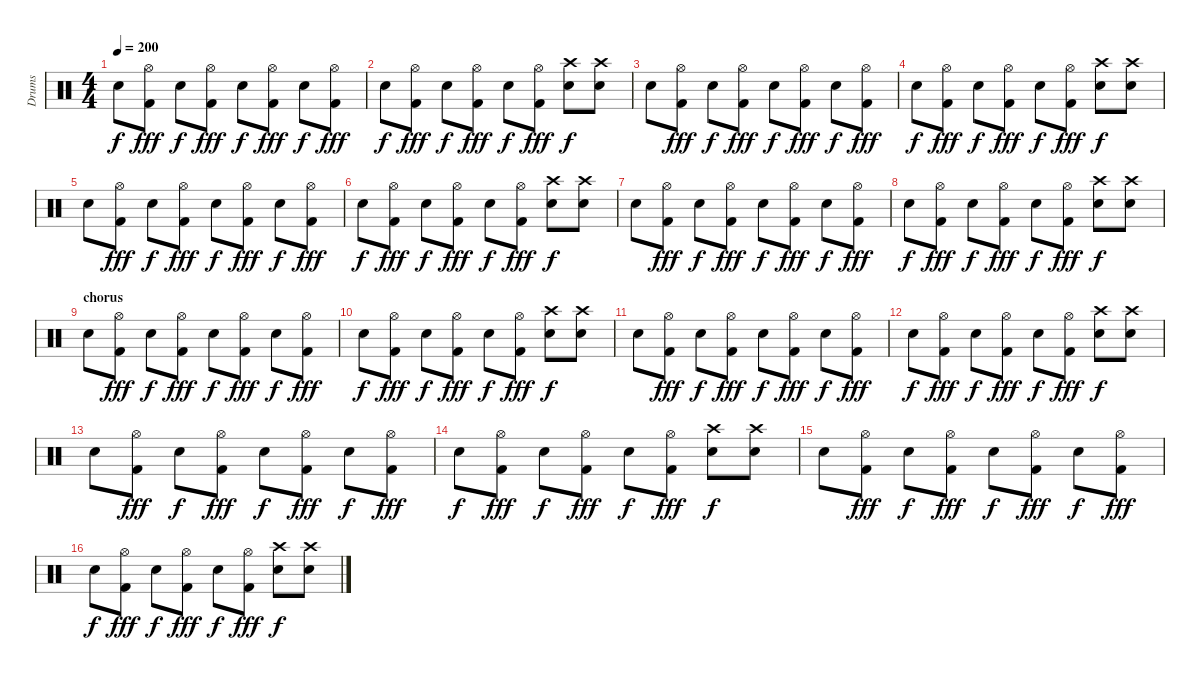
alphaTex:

\track ("Drums" "Drums") {instrument percussion}
\staff {score}
\articulation defaults
\ts (4 4)
\tempo 200
\clef neutral
\ks c "Electric Snare (hit)".8{dy f}
("Hi-Hat (open)" "Kick (hit) 2").8{dy fff} "Electric Snare (hit)".8{dy f} ("Hi-Hat (open)" "Kick (hit) 2").8{dy fff} "Electric Snare (hit)".8{dy f} ("Hi-Hat (open)" "Kick (hit) 2").8{dy fff} "Electric Snare (hit)".8{dy f} ("Hi-Hat (open)" "Kick (hit) 2").8{dy fff} |
"Electric Snare (hit)".8{dy f} ("Hi-Hat (open)" "Kick (hit) 2").8{dy fff} "Electric Snare (hit)".8{dy f} ("Hi-Hat (open)" "Kick (hit) 2").8{dy fff} "Electric Snare (hit)".8{dy f} ("Hi-Hat (open)" "Kick (hit) 2").8{dy fff} ("Crash high (hit)" "Electric Snare (hit)").8{dy f} ("Crash high (hit)" "Electric Snare (hit)").8 |
"Electric Snare (hit)".8 ("Hi-Hat (open)" "Kick (hit) 2").8{dy fff} "Electric Snare (hit)".8{dy f} ("Hi-Hat (open)" "Kick (hit) 2").8{dy fff} "Electric Snare (hit)".8{dy f} ("Hi-Hat (open)" "Kick (hit) 2").8{dy fff} "Electric Snare (hit)".8{dy f} ("Hi-Hat (open)" "Kick (hit) 2").8{dy fff} |
"Electric Snare (hit)".8{dy f} ("Hi-Hat (open)" "Kick (hit) 2").8{dy fff} "Electric Snare (hit)".8{dy f} ("Hi-Hat (open)" "Kick (hit) 2").8{dy fff} "Electric Snare (hit)".8{dy f} ("Hi-Hat (open)" "Kick (hit) 2").8{dy fff} ("Crash high (hit)" "Electric Snare (hit)").8{dy f} ("Crash high (hit)" "Electric Snare (hit)").8 |
"Electric Snare (hit)".8 ("Hi-Hat (open)" "Kick (hit) 2").8{dy fff} "Electric Snare (hit)".8{dy f} ("Hi-Hat (open)" "Kick (hit) 2").8{dy fff} "Electric Snare (hit)".8{dy f} ("Hi-Hat (open)" "Kick (hit) 2").8{dy fff} "Electric Snare (hit)".8{dy f} ("Hi-Hat (open)" "Kick (hit) 2").8{dy fff} |
"Electric Snare (hit)".8{dy f} ("Hi-Hat (open)" "Kick (hit) 2").8{dy fff} "Electric Snare (hit)".8{dy f} ("Hi-Hat (open)" "Kick (hit) 2").8{dy fff} "Electric Snare (hit)".8{dy f} ("Hi-Hat (open)" "Kick (hit) 2").8{dy fff} ("Crash high (hit)" "Electric Snare (hit)").8{dy f} ("Crash high (hit)" "Electric Snare (hit)").8 |
"Electric Snare (hit)".8 ("Hi-Hat (open)" "Kick (hit) 2").8{dy fff} "Electric Snare (hit)".8{dy f} ("Hi-Hat (open)" "Kick (hit) 2").8{dy fff} "Electric Snare (hit)".8{dy f} ("Hi-Hat (open)" "Kick (hit) 2").8{dy fff} "Electric Snare (hit)".8{dy f} ("Hi-Hat (open)" "Kick (hit) 2").8{dy fff} |
"Electric Snare (hit)".8{dy f} ("Hi-Hat (open)" "Kick (hit) 2").8{dy fff} "Electric Snare (hit)".8{dy f} ("Hi-Hat (open)" "Kick (hit) 2").8{dy fff} "Electric Snare (hit)".8{dy f} ("Hi-Hat (open)" "Kick (hit) 2").8{dy fff} ("Crash high (hit)" "Electric Snare (hit)").8{dy f} ("Crash high (hit)" "Electric Snare (hit)").8 |
\section ("" "chorus")
"Electric Snare (hit)".8 ("Hi-Hat (open)" "Kick (hit) 2").8{dy fff} "Electric Snare (hit)".8{dy f} ("Hi-Hat (open)" "Kick (hit) 2").8{dy fff} "Electric Snare (hit)".8{dy f} ("Hi-Hat (open)" "Kick (hit) 2").8{dy fff} "Electric Snare (hit)".8{dy f} ("Hi-Hat (open)" "Kick (hit) 2").8{dy fff} |
"Electric Snare (hit)".8{dy f} ("Hi-Hat (open)" "Kick (hit) 2").8{dy fff} "Electric Snare (hit)".8{dy f} ("Hi-Hat (open)" "Kick (hit) 2").8{dy fff} "Electric Snare (hit)".8{dy f} ("Hi-Hat (open)" "Kick (hit) 2").8{dy fff} ("Crash high (hit)" "Electric Snare (hit)").8{dy f} ("Crash high (hit)" "Electric Snare (hit)").8 |
"Electric Snare (hit)".8 ("Hi-Hat (open)" "Kick (hit) 2").8{dy fff} "Electric Snare (hit)".8{dy f} ("Hi-Hat (open)" "Kick (hit) 2").8{dy fff} "Electric Snare (hit)".8{dy f} ("Hi-Hat (open)" "Kick (hit) 2").8{dy fff} "Electric Snare (hit)".8{dy f} ("Hi-Hat (open)" "Kick (hit) 2").8{dy fff} |
"Electric Snare (hit)".8{dy f} ("Hi-Hat (open)" "Kick (hit) 2").8{dy fff} "Electric Snare (hit)".8{dy f} ("Hi-Hat (open)" "Kick (hit) 2").8{dy fff} "Electric Snare (hit)".8{dy f} ("Hi-Hat (open)" "Kick (hit) 2").8{dy fff} ("Crash high (hit)" "Electric Snare (hit)").8{dy f} ("Crash high (hit)" "Electric Snare (hit)").8 |
"Electric Snare (hit)".8 ("Hi-Hat (open)" "Kick (hit) 2").8{dy fff} "Electric Snare (hit)".8{dy f} ("Hi-Hat (open)" "Kick (hit) 2").8{dy fff} "Electric Snare (hit)".8{dy f} ("Hi-Hat (open)" "Kick (hit) 2").8{dy fff} "Electric Snare (hit)".8{dy f} ("Hi-Hat (open)" "Kick (hit) 2").8{dy fff} |
"Electric Snare (hit)".8{dy f} ("Hi-Hat (open)" "Kick (hit) 2").8{dy fff} "Electric Snare (hit)".8{dy f} ("Hi-Hat (open)" "Kick (hit) 2").8{dy fff} "Electric Snare (hit)".8{dy f} ("Hi-Hat (open)" "Kick (hit) 2").8{dy fff} ("Crash high (hit)" "Electric Snare (hit)").8{dy f} ("Crash high (hit)" "Electric Snare (hit)").8 |
"Electric Snare (hit)".8 ("Hi-Hat (open)" "Kick (hit) 2").8{dy fff} "Electric Snare (hit)".8{dy f} ("Hi-Hat (open)" "Kick (hit) 2").8{dy fff} "Electric Snare (hit)".8{dy f} ("Hi-Hat (open)" "Kick (hit) 2").8{dy fff} "Electric Snare (hit)".8{dy f} ("Hi-Hat (open)" "Kick (hit) 2").8{dy fff} |
"Electric Snare (hit)".8{dy f} ("Hi-Hat (open)" "Kick (hit) 2").8{dy fff} "Electric Snare (hit)".8{dy f} ("Hi-Hat (open)" "Kick (hit) 2").8{dy fff} "Electric Snare (hit)".8{dy f} ("Hi-Hat (open)" "Kick (hit) 2").8{dy fff} ("Crash high (hit)" "Electric Snare (hit)").8{dy f} ("Crash high (hit)" "Electric Snare (hit)").8
